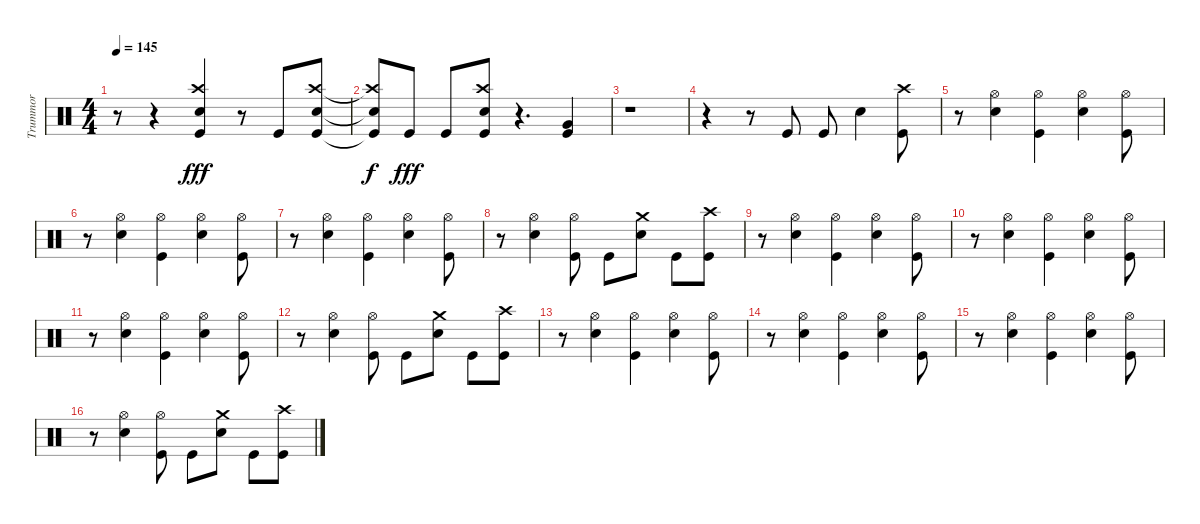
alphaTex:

\track ("Trummor" "Trummor") {instrument percussion}
\staff {score}
\articulation defaults
\ts (4 4)
\tempo 145
\clef neutral
\ks c
r.8{dy fff} r.4 ("Snare (hit) 2" "Crash high (hit)" "Kick (hit)").4 r.8 "Kick (hit)".8 ("Snare (hit) 2" "Crash high (hit)" "Kick (hit)").8 |
("Snare (hit) 2"{t} "Crash high (hit)"{t} "Kick (hit)"{t}).8{dy f} "Kick (hit)".8{dy fff} "Kick (hit)".8 ("Snare (hit) 2" "Crash high (hit)" "Kick (hit)").8 r.4{d} ("Very Low Tom (hit)" "Kick (hit)").4 |
r.1 |
r.4 r.8 "Kick (hit)".8 "Kick (hit)".8 "Snare (hit) 2".4 ("Crash high (hit)" "Kick (hit)").8 |
r.8 ("Hi-Hat (open)" "Snare (hit) 2").4 ("Hi-Hat (open)" "Kick (hit)").4 ("Hi-Hat (open)" "Snare (hit) 2").4 ("Hi-Hat (open)" "Kick (hit)").8 |
r.8 ("Hi-Hat (open)" "Snare (hit) 2").4 ("Hi-Hat (open)" "Kick (hit)").4 ("Hi-Hat (open)" "Snare (hit) 2").4 ("Hi-Hat (open)" "Kick (hit)").8 |
r.8 ("Hi-Hat (open)" "Snare (hit) 2").4 ("Hi-Hat (open)" "Kick (hit)").4 ("Hi-Hat (open)" "Snare (hit) 2").4 ("Hi-Hat (open)" "Kick (hit)").8 |
r.8 ("Hi-Hat (open)" "Snare (hit) 2").4 ("Hi-Hat (open)" "Kick (hit)").8 "Kick (hit)".8 ("Crash medium (hit)" "Snare (hit) 2").8 "Kick (hit)".8 ("Crash high (hit)" "Kick (hit)").8 |
r.8 ("Hi-Hat (open)" "Snare (hit) 2").4 ("Hi-Hat (open)" "Kick (hit)").4 ("Hi-Hat (open)" "Snare (hit) 2").4 ("Hi-Hat (open)" "Kick (hit)").8 |
r.8 ("Hi-Hat (open)" "Snare (hit) 2").4 ("Hi-Hat (open)" "Kick (hit)").4 ("Hi-Hat (open)" "Snare (hit) 2").4 ("Hi-Hat (open)" "Kick (hit)").8 |
r.8 ("Hi-Hat (open)" "Snare (hit) 2").4 ("Hi-Hat (open)" "Kick (hit)").4 ("Hi-Hat (open)" "Snare (hit) 2").4 ("Hi-Hat (open)" "Kick (hit)").8 |
r.8 ("Hi-Hat (open)" "Snare (hit) 2").4 ("Hi-Hat (open)" "Kick (hit)").8 "Kick (hit)".8 ("Crash medium (hit)" "Snare (hit) 2").8 "Kick (hit)".8 ("Crash high (hit)" "Kick (hit)").8 |
r.8 ("Hi-Hat (open)" "Snare (hit) 2").4 ("Hi-Hat (open)" "Kick (hit)").4 ("Hi-Hat (open)" "Snare (hit) 2").4 ("Hi-Hat (open)" "Kick (hit)").8 |
r.8 ("Hi-Hat (open)" "Snare (hit) 2").4 ("Hi-Hat (open)" "Kick (hit)").4 ("Hi-Hat (open)" "Snare (hit) 2").4 ("Hi-Hat (open)" "Kick (hit)").8 |
r.8 ("Hi-Hat (open)" "Snare (hit) 2").4 ("Hi-Hat (open)" "Kick (hit)").4 ("Hi-Hat (open)" "Snare (hit) 2").4 ("Hi-Hat (open)" "Kick (hit)").8 |
r.8 ("Hi-Hat (open)" "Snare (hit) 2").4 ("Hi-Hat (open)" "Kick (hit)").8 "Kick (hit)".8 ("Crash medium (hit)" "Snare (hit) 2").8 "Kick (hit)".8 ("Crash high (hit)" "Kick (hit)").8
